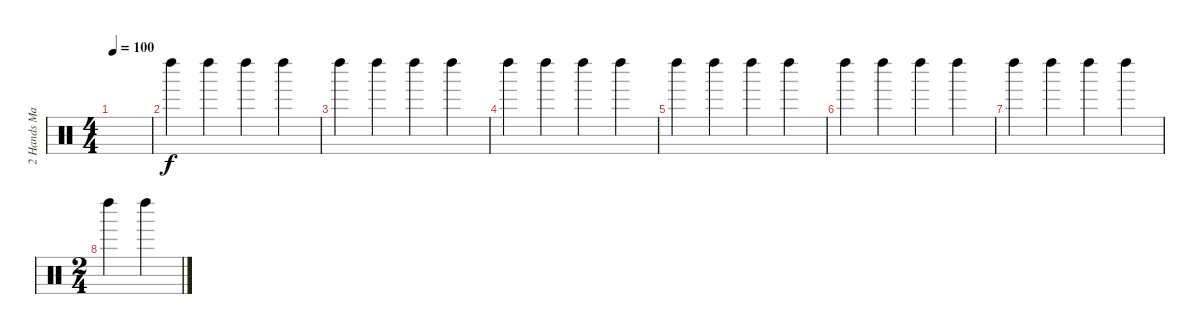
\track ("2 Hands Maracas (Staff 1)" "2 Hands Ma") {instrument percussion}
\staff {score}
\articulation defaults
\ts (4 4)
\tempo 100
\clef neutral
\ks c
|
"Left Maraca (hit)".4 "Left Maraca (hit)".4 "Left Maraca (hit)".4 "Left Maraca (hit)".4 |
"Left Maraca (hit)".4 "Left Maraca (hit)".4 "Left Maraca (hit)".4 "Left Maraca (hit)".4 |
"Left Maraca (hit)".4 "Left Maraca (hit)".4 "Left Maraca (hit)".4 "Left Maraca (hit)".4 |
"Left Maraca (hit)".4 "Left Maraca (hit)".4 "Left Maraca (hit)".4 "Left Maraca (hit)".4 |
"Left Maraca (hit)".4 "Left Maraca (hit)".4 "Left Maraca (hit)".4 "Left Maraca (hit)".4 |
"Left Maraca (hit)".4 "Left Maraca (hit)".4 "Left Maraca (hit)".4 "Left Maraca (hit)".4 |
\ts (2 4)
"Left Maraca (hit)".4 "Left Maraca (hit)".4
